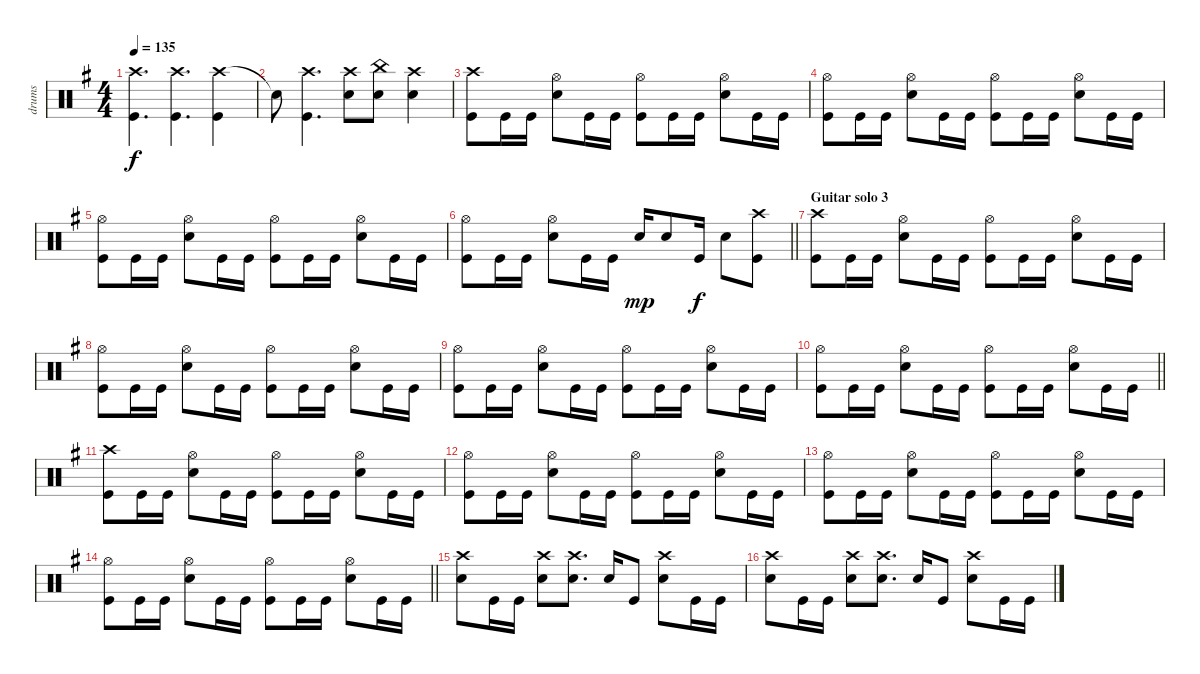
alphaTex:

\track ("drums" "drums") {instrument percussion}
\staff {score}
\articulation defaults
\ts (4 4)
\tempo 135
\clef neutral
\ks eminor
("Crash high (hit)" "Kick (hit)").4{d dy f} ("Crash high (hit)" "Kick (hit)").4{d} ("Crash high (hit)" "Kick (hit)").4 |
"Snare (hit) 2"{t}.8 ("Crash high (hit)" "Kick (hit)").4{d} ("Crash high (hit)" "Snare (hit) 2").8 ("China (hit)" "Snare (hit) 2").8 ("Crash high (hit)" "Snare (hit) 2").4 |
("Crash high (hit)" "Kick (hit)").8 "Kick (hit)".16 "Kick (hit)".16 ("Hi-Hat (open)" "Snare (hit) 2").8 "Kick (hit)".16 "Kick (hit)".16 ("Hi-Hat (open)" "Kick (hit)").8 "Kick (hit)".16 "Kick (hit)".16 ("Hi-Hat (open)" "Snare (hit) 2").8 "Kick (hit)".16 "Kick (hit)".16 |
("Hi-Hat (open)" "Kick (hit)").8 "Kick (hit)".16 "Kick (hit)".16 ("Hi-Hat (open)" "Snare (hit) 2").8 "Kick (hit)".16 "Kick (hit)".16 ("Hi-Hat (open)" "Kick (hit)").8 "Kick (hit)".16 "Kick (hit)".16 ("Hi-Hat (open)" "Snare (hit) 2").8 "Kick (hit)".16 "Kick (hit)".16 |
("Hi-Hat (open)" "Kick (hit)").8 "Kick (hit)".16 "Kick (hit)".16 ("Hi-Hat (open)" "Snare (hit) 2").8 "Kick (hit)".16 "Kick (hit)".16 ("Hi-Hat (open)" "Kick (hit)").8 "Kick (hit)".16 "Kick (hit)".16 ("Hi-Hat (open)" "Snare (hit) 2").8 "Kick (hit)".16 "Kick (hit)".16 |
\barLineRight lightlight
("Hi-Hat (open)" "Kick (hit)").8 "Kick (hit)".16 "Kick (hit)".16 ("Hi-Hat (open)" "Snare (hit) 2").8 "Kick (hit)".16 "Kick (hit)".16 "Snare (hit) 2".16{dy mp} "Snare (hit) 2".8 "Kick (hit)".16{dy f} "Snare (hit) 2".8 ("Crash high (hit)" "Kick (hit)").8 |
\section ("" "Guitar solo 3")
("Crash high (hit)" "Kick (hit)").8 "Kick (hit)".16 "Kick (hit)".16 ("Hi-Hat (open)" "Snare (hit) 2").8 "Kick (hit)".16 "Kick (hit)".16 ("Hi-Hat (open)" "Kick (hit)").8 "Kick (hit)".16 "Kick (hit)".16 ("Hi-Hat (open)" "Snare (hit) 2").8 "Kick (hit)".16 "Kick (hit)".16 |
("Hi-Hat (open)" "Kick (hit)").8 "Kick (hit)".16 "Kick (hit)".16 ("Hi-Hat (open)" "Snare (hit) 2").8 "Kick (hit)".16 "Kick (hit)".16 ("Hi-Hat (open)" "Kick (hit)").8 "Kick (hit)".16 "Kick (hit)".16 ("Hi-Hat (open)" "Snare (hit) 2").8 "Kick (hit)".16 "Kick (hit)".16 |
("Hi-Hat (open)" "Kick (hit)").8 "Kick (hit)".16 "Kick (hit)".16 ("Hi-Hat (open)" "Snare (hit) 2").8 "Kick (hit)".16 "Kick (hit)".16 ("Hi-Hat (open)" "Kick (hit)").8 "Kick (hit)".16 "Kick (hit)".16 ("Hi-Hat (open)" "Snare (hit) 2").8 "Kick (hit)".16 "Kick (hit)".16 |
\barLineRight lightlight
("Hi-Hat (open)" "Kick (hit)").8 "Kick (hit)".16 "Kick (hit)".16 ("Hi-Hat (open)" "Snare (hit) 2").8 "Kick (hit)".16 "Kick (hit)".16 ("Hi-Hat (open)" "Kick (hit)").8 "Kick (hit)".16 "Kick (hit)".16 ("Hi-Hat (open)" "Snare (hit) 2").8 "Kick (hit)".16 "Kick (hit)".16 |
("Crash high (hit)" "Kick (hit)").8 "Kick (hit)".16 "Kick (hit)".16 ("Hi-Hat (open)" "Snare (hit) 2").8 "Kick (hit)".16 "Kick (hit)".16 ("Hi-Hat (open)" "Kick (hit)").8 "Kick (hit)".16 "Kick (hit)".16 ("Hi-Hat (open)" "Snare (hit) 2").8 "Kick (hit)".16 "Kick (hit)".16 |
("Hi-Hat (open)" "Kick (hit)").8 "Kick (hit)".16 "Kick (hit)".16 ("Hi-Hat (open)" "Snare (hit) 2").8 "Kick (hit)".16 "Kick (hit)".16 ("Hi-Hat (open)" "Kick (hit)").8 "Kick (hit)".16 "Kick (hit)".16 ("Hi-Hat (open)" "Snare (hit) 2").8 "Kick (hit)".16 "Kick (hit)".16 |
("Hi-Hat (open)" "Kick (hit)").8 "Kick (hit)".16 "Kick (hit)".16 ("Hi-Hat (open)" "Snare (hit) 2").8 "Kick (hit)".16 "Kick (hit)".16 ("Hi-Hat (open)" "Kick (hit)").8 "Kick (hit)".16 "Kick (hit)".16 ("Hi-Hat (open)" "Snare (hit) 2").8 "Kick (hit)".16 "Kick (hit)".16 |
\barLineRight lightlight
("Hi-Hat (open)" "Kick (hit)").8 "Kick (hit)".16 "Kick (hit)".16 ("Hi-Hat (open)" "Snare (hit) 2").8 "Kick (hit)".16 "Kick (hit)".16 ("Hi-Hat (open)" "Kick (hit)").8 "Kick (hit)".16 "Kick (hit)".16 ("Hi-Hat (open)" "Snare (hit) 2").8 "Kick (hit)".16 "Kick (hit)".16 |
("Crash high (hit)" "Snare (hit) 2").8 "Kick (hit)".16 "Kick (hit)".16 ("Crash high (hit)" "Snare (hit) 2").8 ("Crash high (hit)" "Snare (hit) 2").8{d} "Snare (hit) 2".16 "Kick (hit)".8 ("Crash high (hit)" "Snare (hit) 2").8 "Kick (hit)".16 "Kick (hit)".16 |
("Crash high (hit)" "Snare (hit) 2").8 "Kick (hit)".16 "Kick (hit)".16 ("Crash high (hit)" "Snare (hit) 2").8 ("Crash high (hit)" "Snare (hit) 2").8{d} "Snare (hit) 2".16 "Kick (hit)".8 ("Crash high (hit)" "Snare (hit) 2").8 "Kick (hit)".16 "Kick (hit)".16
